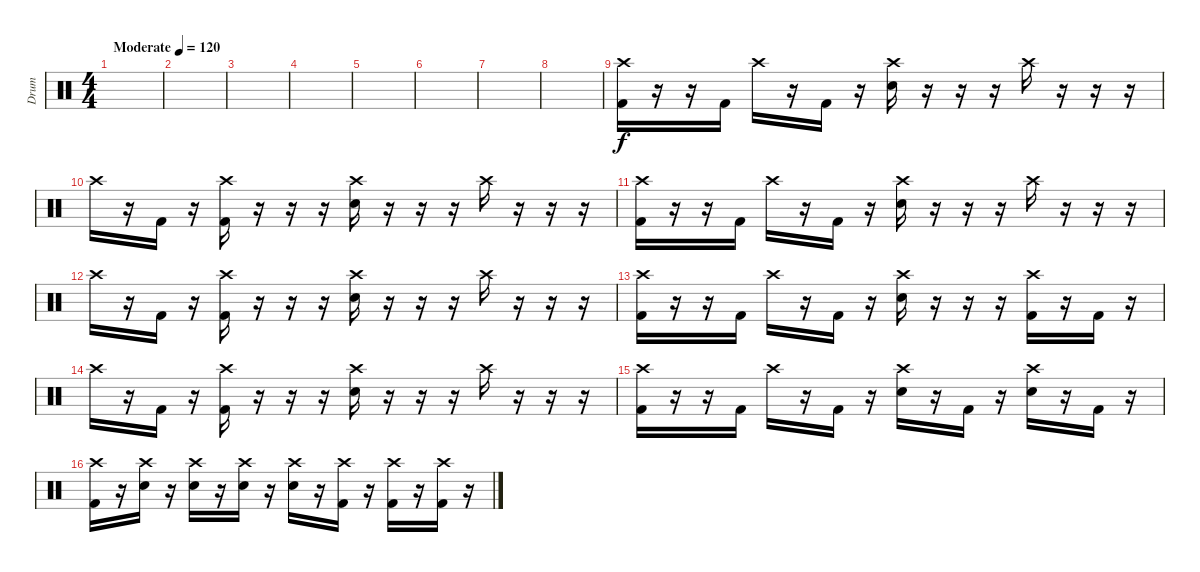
\track ("Drum" "Drum") {instrument percussion}
\staff {score}
\articulation defaults
\ts (4 4)
\tempo (120 "Moderate")
\tempo 135
\tempo (120 "Moderate")
\clef neutral
\ks c
|
|
|
|
|
|
|
|
("Crash high (hit)" "Kick (hit) 2").16 r.16 r.16 "Kick (hit) 2".16 "Crash high (hit)".16 r.16 "Kick (hit) 2".16 r.16 ("Crash high (hit)" "Electric Snare (hit)").16 r.16 r.16 r.16 "Crash high (hit)".16 r.16 r.16 r.16 |
"Crash high (hit)".16 r.16 "Kick (hit) 2".16 r.16 ("Crash high (hit)" "Kick (hit) 2").16 r.16 r.16 r.16 ("Crash high (hit)" "Electric Snare (hit)").16 r.16 r.16 r.16 "Crash high (hit)".16 r.16 r.16 r.16 |
("Crash high (hit)" "Kick (hit) 2").16 r.16 r.16 "Kick (hit) 2".16 "Crash high (hit)".16 r.16 "Kick (hit) 2".16 r.16 ("Crash high (hit)" "Electric Snare (hit)").16 r.16 r.16 r.16 "Crash high (hit)".16 r.16 r.16 r.16 |
"Crash high (hit)".16 r.16 "Kick (hit) 2".16 r.16 ("Crash high (hit)" "Kick (hit) 2").16 r.16 r.16 r.16 ("Crash high (hit)" "Electric Snare (hit)").16 r.16 r.16 r.16 "Crash high (hit)".16 r.16 r.16 r.16 |
("Crash high (hit)" "Kick (hit) 2").16 r.16 r.16 "Kick (hit) 2".16 "Crash high (hit)".16 r.16 "Kick (hit) 2".16 r.16 ("Crash high (hit)" "Electric Snare (hit)").16 r.16 r.16 r.16 ("Crash high (hit)" "Kick (hit) 2").16 r.16 "Kick (hit) 2".16 r.16 |
"Crash high (hit)".16 r.16 "Kick (hit) 2".16 r.16 ("Crash high (hit)" "Kick (hit) 2").16 r.16 r.16 r.16 ("Crash high (hit)" "Electric Snare (hit)").16 r.16 r.16 r.16 "Crash high (hit)".16 r.16 r.16 r.16 |
("Crash high (hit)" "Kick (hit) 2").16 r.16 r.16 "Kick (hit) 2".16 "Crash high (hit)".16 r.16 "Kick (hit) 2".16 r.16 ("Crash high (hit)" "Electric Snare (hit)").16 r.16 "Kick (hit) 2".16 r.16 ("Crash high (hit)" "Electric Snare (hit)").16 r.16 "Kick (hit) 2".16 r.16 |
("Crash high (hit)" "Kick (hit) 2").16 r.16 ("Crash high (hit)" "Electric Snare (hit)").16 r.16 ("Crash high (hit)" "Electric Snare (hit)").16 r.16 ("Crash high (hit)" "Electric Snare (hit)").16 r.16 ("Crash high (hit)" "Electric Snare (hit)").16 r.16 ("Crash high (hit)" "Kick (hit) 2").16 r.16 ("Crash high (hit)" "Kick (hit) 2").16 r.16 ("Crash high (hit)" "Kick (hit) 2").16 r.16
